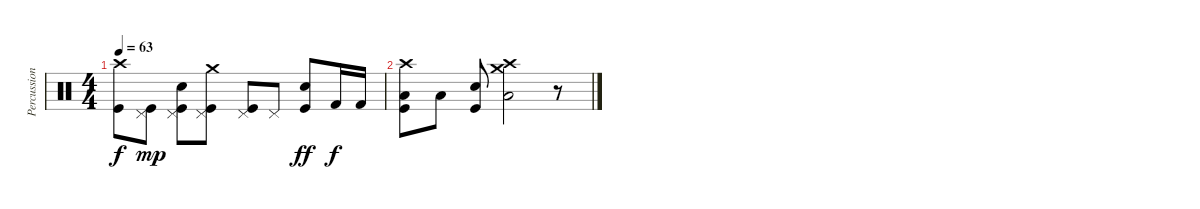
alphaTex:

\track ("Percussion" "Percussion") {instrument percussion}
\staff {score}
\articulation defaults
\ts (4 4)
\tempo 63
\clef neutral
\ks c
("Crash high (hit)" "Kick (hit)").8{dy f} ("Pedal Hi-Hat (hit)" "Kick (hit)").8{dy mp} ("Pedal Hi-Hat (hit)" "Electric Snare (hit)" "Kick (hit)").8 ("Crash medium (hit)" "Pedal Hi-Hat (hit)" "Kick (hit)").8 ("Pedal Hi-Hat (hit)" "Kick (hit)").8 "Pedal Hi-Hat (hit)".8 ("Electric Snare (hit)" "Kick (hit)").8{dy ff} "Kick (hit) 2".16{dy f} "Kick (hit) 2".16 |
("Crash high (hit)" "Kick (hit)" "Low Floor Tom (hit)").8 "Low Floor Tom (hit)".8 ("Electric Snare (hit)" "Kick (hit)").8 ("Crash medium (hit)" "Crash high (hit)" "Low Floor Tom (hit)").2 r.8
